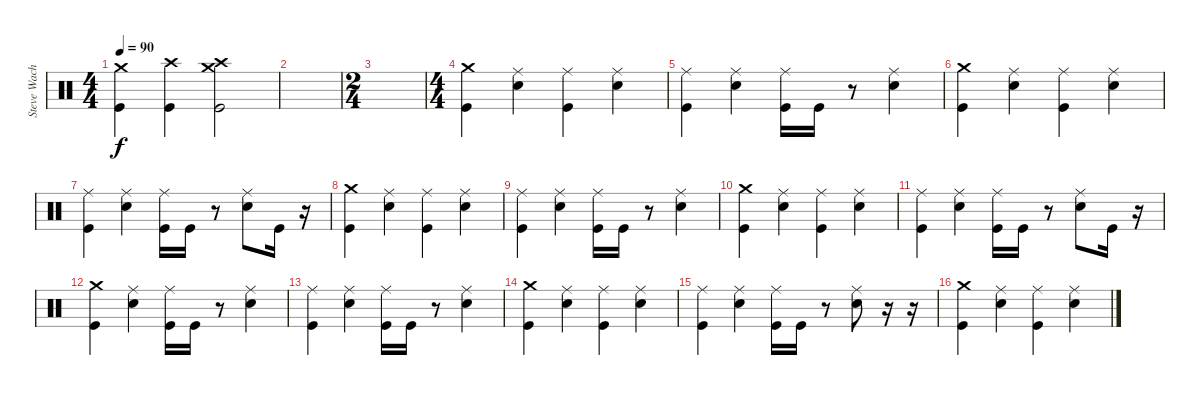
\track ("Steve Wacholz" "Steve Wach") {instrument percussion}
\staff {score}
\articulation defaults
\ts (4 4)
\tempo 90
\clef neutral
\ks c
("Crash medium (hit)" "Kick (hit)").4{dy f} ("Crash high (hit)" "Kick (hit)").4 ("Crash medium (hit)" "Crash high (hit)" "Kick (hit)").2 |
|
\ts (2 4)
|
\ts (4 4)
("Crash medium (hit)" "Kick (hit)").4 ("Ride (middle)" "Electric Snare (hit)").4 ("Ride (middle)" "Kick (hit)").4 ("Ride (middle)" "Electric Snare (hit)").4 |
("Ride (middle)" "Kick (hit)").4 ("Ride (middle)" "Electric Snare (hit)").4 ("Ride (middle)" "Kick (hit)").16 "Kick (hit)".16 r.8 ("Ride (middle)" "Electric Snare (hit)").4 |
("Crash medium (hit)" "Kick (hit)").4 ("Ride (middle)" "Electric Snare (hit)").4 ("Ride (middle)" "Kick (hit)").4 ("Ride (middle)" "Electric Snare (hit)").4 |
("Ride (middle)" "Kick (hit)").4 ("Ride (middle)" "Electric Snare (hit)").4 ("Ride (middle)" "Kick (hit)").16 "Kick (hit)".16 r.8 ("Ride (middle)" "Electric Snare (hit)").8 "Kick (hit)".16 r.16 |
("Crash medium (hit)" "Kick (hit)").4 ("Ride (middle)" "Electric Snare (hit)").4 ("Ride (middle)" "Kick (hit)").4 ("Ride (middle)" "Electric Snare (hit)").4 |
("Ride (middle)" "Kick (hit)").4 ("Ride (middle)" "Electric Snare (hit)").4 ("Ride (middle)" "Kick (hit)").16 "Kick (hit)".16 r.8 ("Ride (middle)" "Electric Snare (hit)").4 |
("Crash medium (hit)" "Kick (hit)").4 ("Ride (middle)" "Electric Snare (hit)").4 ("Ride (middle)" "Kick (hit)").4 ("Ride (middle)" "Electric Snare (hit)").4 |
("Ride (middle)" "Kick (hit)").4 ("Ride (middle)" "Electric Snare (hit)").4 ("Ride (middle)" "Kick (hit)").16 "Kick (hit)".16 r.8 ("Ride (middle)" "Electric Snare (hit)").8 "Kick (hit)".16 r.16 |
("Crash medium (hit)" "Kick (hit)").4 ("Ride (middle)" "Electric Snare (hit)").4 ("Ride (middle)" "Kick (hit)").16 "Kick (hit)".16 r.8 ("Ride (middle)" "Electric Snare (hit)").4 |
("Ride (middle)" "Kick (hit)").4 ("Ride (middle)" "Electric Snare (hit)").4 ("Ride (middle)" "Kick (hit)").16 "Kick (hit)".16 r.8 ("Ride (middle)" "Electric Snare (hit)").4 |
("Crash medium (hit)" "Kick (hit)").4 ("Ride (middle)" "Electric Snare (hit)").4 ("Ride (middle)" "Kick (hit)").4 ("Ride (middle)" "Electric Snare (hit)").4 |
("Ride (middle)" "Kick (hit)").4 ("Ride (middle)" "Electric Snare (hit)").4 ("Ride (middle)" "Kick (hit)").16 "Kick (hit)".16 r.8 ("Ride (middle)" "Electric Snare (hit)").8 r.16 r.16 |
("Crash medium (hit)" "Kick (hit)").4 ("Ride (middle)" "Electric Snare (hit)").4 ("Ride (middle)" "Kick (hit)").4 ("Ride (middle)" "Electric Snare (hit)").4
